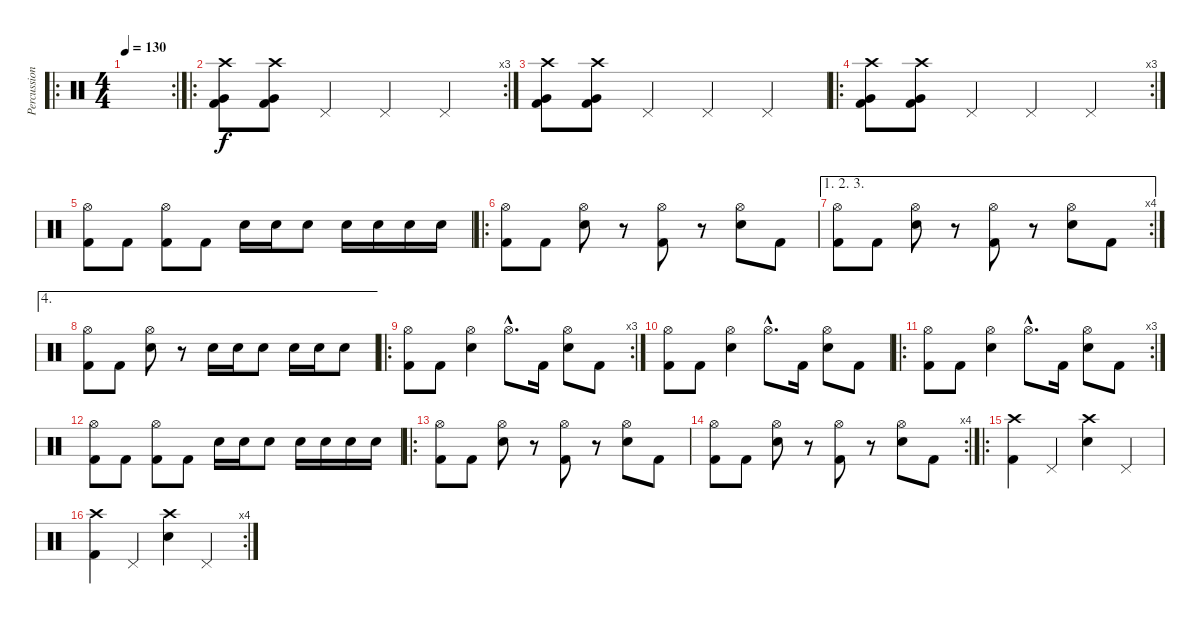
\track ("Percussions" "Percussion") {instrument percussion}
\staff {score}
\articulation defaults
\ro
\rc 2
\ts (4 4)
\tempo 130
\clef neutral
\ks c
|
\ro
\rc 3
("Crash high (hit)" "Kick (hit) 2" "Very Low Tom (hit)").8 ("Crash high (hit)" "Very Low Tom (hit)" "Kick (hit) 2").8 "Pedal Hi-Hat (hit)".4 "Pedal Hi-Hat (hit)".4 "Pedal Hi-Hat (hit)".4 |
("Crash high (hit)" "Kick (hit) 2" "Very Low Tom (hit)").8 ("Crash high (hit)" "Very Low Tom (hit)" "Kick (hit) 2").8 "Pedal Hi-Hat (hit)".4 "Pedal Hi-Hat (hit)".4 "Pedal Hi-Hat (hit)".4 |
\ro
\rc 3
("Crash high (hit)" "Kick (hit) 2" "Very Low Tom (hit)").8 ("Crash high (hit)" "Very Low Tom (hit)" "Kick (hit) 2").8 "Pedal Hi-Hat (hit)".4 "Pedal Hi-Hat (hit)".4 "Pedal Hi-Hat (hit)".4 |
("Hi-Hat (open)" "Kick (hit) 2").8 "Kick (hit) 2".8 ("Hi-Hat (open)" "Kick (hit) 2").8 "Kick (hit) 2".8 "Snare (hit) 2".16 "Snare (hit) 2".16 "Snare (hit) 2".8 "Snare (hit) 2".16 "Snare (hit) 2".16 "Snare (hit) 2".16 "Snare (hit) 2".16 |
\ro
("Hi-Hat (open)" "Kick (hit) 2").8 "Kick (hit) 2".8 ("Hi-Hat (open)" "Snare (hit) 2").8 r.8 ("Hi-Hat (open)" "Kick (hit) 2").8 r.8 ("Hi-Hat (open)" "Snare (hit) 2").8 "Kick (hit) 2".8 |
\ae (1 2 3)
\rc 4
("Hi-Hat (open)" "Kick (hit) 2").8 "Kick (hit) 2".8 ("Hi-Hat (open)" "Snare (hit) 2").8 r.8 ("Hi-Hat (open)" "Kick (hit) 2").8 r.8 ("Hi-Hat (open)" "Snare (hit) 2").8 "Kick (hit) 2".8 |
\ae 4
("Hi-Hat (open)" "Kick (hit) 2").8 "Kick (hit) 2".8 ("Hi-Hat (open)" "Snare (hit) 2").8 r.8 "Snare (hit) 2".16 "Snare (hit) 2".16 "Snare (hit) 2".8 "Snare (hit) 2".16 "Snare (hit) 2".16 "Snare (hit) 2".8 |
\ro
\rc 3
("Hi-Hat (open)" "Kick (hit) 2").8 "Kick (hit) 2".8 ("Snare (hit) 2" "Hi-Hat (open)").4 "Hi-Hat (open)"{hac}.8{d} "Kick (hit) 2".16 ("Hi-Hat (open)" "Snare (hit) 2").8 "Kick (hit) 2".8 |
("Hi-Hat (open)" "Kick (hit) 2").8 "Kick (hit) 2".8 ("Snare (hit) 2" "Hi-Hat (open)").4 "Hi-Hat (open)"{hac}.8{d} "Kick (hit) 2".16 ("Hi-Hat (open)" "Snare (hit) 2").8 "Kick (hit) 2".8 |
\ro
\rc 3
("Hi-Hat (open)" "Kick (hit) 2").8 "Kick (hit) 2".8 ("Snare (hit) 2" "Hi-Hat (open)").4 "Hi-Hat (open)"{hac}.8{d} "Kick (hit) 2".16 ("Hi-Hat (open)" "Snare (hit) 2").8 "Kick (hit) 2".8 |
("Hi-Hat (open)" "Kick (hit) 2").8 "Kick (hit) 2".8 ("Hi-Hat (open)" "Kick (hit) 2").8 "Kick (hit) 2".8 "Snare (hit) 2".16 "Snare (hit) 2".16 "Snare (hit) 2".8 "Snare (hit) 2".16 "Snare (hit) 2".16 "Snare (hit) 2".16 "Snare (hit) 2".16 |
\ro
("Hi-Hat (open)" "Kick (hit) 2").8 "Kick (hit) 2".8 ("Hi-Hat (open)" "Snare (hit) 2").8 r.8 ("Hi-Hat (open)" "Kick (hit) 2").8 r.8 ("Hi-Hat (open)" "Snare (hit) 2").8 "Kick (hit) 2".8 |
\rc 4
("Hi-Hat (open)" "Kick (hit) 2").8 "Kick (hit) 2".8 ("Hi-Hat (open)" "Snare (hit) 2").8 r.8 ("Hi-Hat (open)" "Kick (hit) 2").8 r.8 ("Hi-Hat (open)" "Snare (hit) 2").8 "Kick (hit) 2".8 |
\ro
("Crash high (hit)" "Kick (hit) 2").4 "Pedal Hi-Hat (hit)".4 ("Crash high (hit)" "Snare (hit) 2").4 "Pedal Hi-Hat (hit)".4 |
\rc 4
("Crash high (hit)" "Kick (hit) 2").4 "Pedal Hi-Hat (hit)".4 ("Crash high (hit)" "Snare (hit) 2").4 "Pedal Hi-Hat (hit)".4
